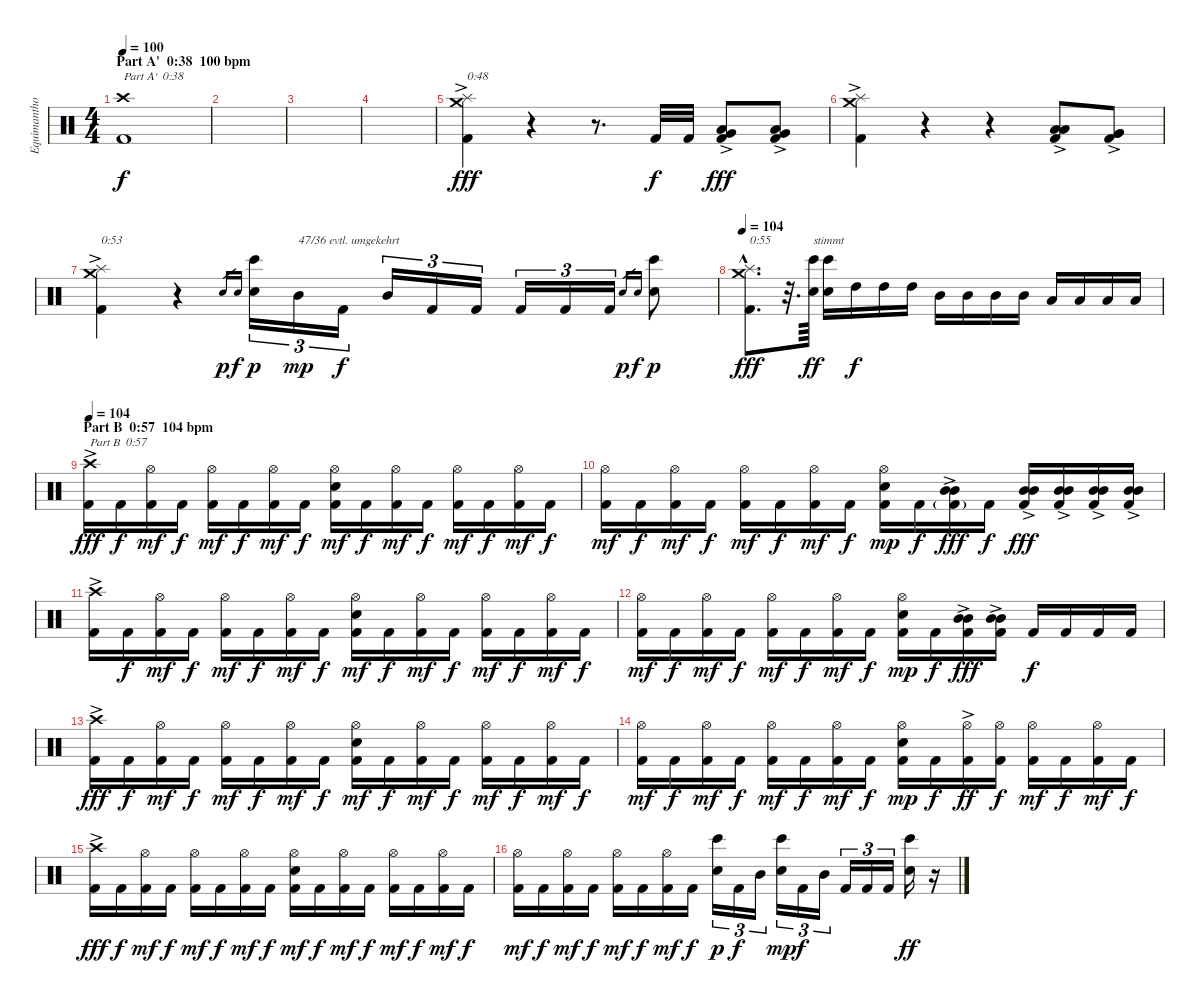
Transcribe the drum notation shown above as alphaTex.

\track ("Equimanthorn" "Equimantho") {instrument percussion}
\staff {score}
\articulation defaults
\ts (4 4)
\section ("" "Part A'  0:38  100 bpm")
\tempo 100
\clef neutral
\ks c
("Kick (hit) 2" "Crash high (hit)").1{txt "Part A'  0:38" dy f} |
|
|
|
("Kick (hit) 2" "Splash (hit)"{ac} "Crash medium (hit)"{ac}).4{txt "0:48" dy fff} r.4 r.8{d} "Kick (hit) 2".32{dy f} "Kick (hit) 2".32 ("Kick (hit) 2" "Low Tom (hit)"{ac} "Very Low Tom (hit)"{ac}).8{dy fff} ("Kick (hit) 2" "Low Tom (hit)"{ac} "Very Low Tom (hit)"{ac}).8 |
("Kick (hit) 2" "Splash (hit)"{ac} "Crash medium (hit)"{ac}).4 r.4 r.4 ("Kick (hit) 2" "Low Tom (hit)"{ac} "Low Tom (hit)"{ac}).8 ("Kick (hit) 2" "Very Low Tom (hit)"{ac} "Very Low Tom (hit)"{ac}).8 |
("Kick (hit) 2" "Splash (hit)"{ac} "Crash medium (hit)"{ac}).4{txt "0:53"} r.4 "Snare (hit)".16{gr dy p} "Electric Snare (hit)".16{gr dy f} ("Bongo High (hit)" "Electric Snare (hit)").16{tu (3 2) dy p} "Mid Tom (hit)".16{tu (3 2) txt "47/36 evtl. umgekehrt" dy mp} "Kick (hit) 2".16{tu (3 2) dy f} "Mid Tom (hit)".16{tu (3 2)} "Kick (hit) 2".16{tu (3 2)} "Kick (hit) 2".16{tu (3 2)} "Kick (hit) 2".16{tu (3 2)} "Kick (hit) 2".16{tu (3 2)} "Kick (hit) 2".16{tu (3 2)} "Snare (hit)".16{gr dy p} "Electric Snare (hit)".16{gr dy f} ("Bongo High (hit)" "Electric Snare (hit)").8{dy p} |
\tempo 104
("Kick (hit) 2"{hac} "Splash (hit)"{hac} "Crash medium (hit)"{hac}).8{d txt "0:55" dy fff} r.32{d} ("Bongo High (hit)" "Electric Snare (hit)").64{txt "stimmt" dy ff} ("Bongo High (hit)" "Electric Snare (hit)").16 "High Tom (hit)".16{dy f} "High Tom (hit)".16 "High Tom (hit)".16 "Mid Tom (hit)".16 "Mid Tom (hit)".16 "Mid Tom (hit)".16 "Mid Tom (hit)".16 "Low Tom (hit)".16 "Low Tom (hit)".16 "Low Tom (hit)".16 "Low Tom (hit)".16 |
\section ("" "Part B  0:57  104 bpm")
\tempo 104
("Kick (hit) 2" "Crash high (hit)"{ac}).16{txt "Part B  0:57" dy fff} "Kick (hit) 2".16{dy f} ("Kick (hit) 2" "Hi-Hat (open)").16{dy mf} "Kick (hit) 2".16{dy f} ("Kick (hit) 2" "Hi-Hat (open)").16{dy mf} "Kick (hit) 2".16{dy f} ("Kick (hit) 2" "Hi-Hat (open)").16{dy mf} "Kick (hit) 2".16{dy f} ("Kick (hit) 2" "Electric Snare (hit)" "Hi-Hat (open)").16{dy mf} "Kick (hit) 2".16{dy f} ("Kick (hit) 2" "Hi-Hat (open)").16{dy mf} "Kick (hit) 2".16{dy f} ("Kick (hit) 2" "Hi-Hat (open)").16{dy mf} "Kick (hit) 2".16{dy f} ("Kick (hit) 2" "Hi-Hat (open)").16{dy mf} "Kick (hit) 2".16{dy f} |
("Kick (hit) 2" "Hi-Hat (open)").16{dy mf} "Kick (hit) 2".16{dy f} ("Kick (hit) 2" "Hi-Hat (open)").16{dy mf} "Kick (hit) 2".16{dy f} ("Kick (hit) 2" "Hi-Hat (open)").16{dy mf} "Kick (hit) 2".16{dy f} ("Kick (hit) 2" "Hi-Hat (open)").16{dy mf} "Kick (hit) 2".16{dy f} ("Kick (hit) 2" "Electric Snare (hit)" "Hi-Hat (open)").16{dy mp} "Kick (hit) 2".16{dy f} ("Kick (hit) 2"{g} "Mid Tom (hit)"{ac} "Mid Tom (hit)"{ac}).16{dy fff} "Kick (hit) 2".16{dy f} ("Kick (hit) 2" "Mid Tom (hit)"{ac} "Mid Tom (hit)"{ac}).16{dy fff} ("Kick (hit) 2" "Mid Tom (hit)"{ac} "Mid Tom (hit)"{ac}).16 ("Kick (hit) 2" "Mid Tom (hit)"{ac} "Mid Tom (hit)"{ac}).16 ("Kick (hit) 2" "Mid Tom (hit)"{ac} "Mid Tom (hit)"{ac}).16 |
("Kick (hit) 2" "Crash high (hit)"{ac}).16 "Kick (hit) 2".16{dy f} ("Kick (hit) 2" "Hi-Hat (open)").16{dy mf} "Kick (hit) 2".16{dy f} ("Kick (hit) 2" "Hi-Hat (open)").16{dy mf} "Kick (hit) 2".16{dy f} ("Kick (hit) 2" "Hi-Hat (open)").16{dy mf} "Kick (hit) 2".16{dy f} ("Kick (hit) 2" "Electric Snare (hit)" "Hi-Hat (open)").16{dy mf} "Kick (hit) 2".16{dy f} ("Kick (hit) 2" "Hi-Hat (open)").16{dy mf} "Kick (hit) 2".16{dy f} ("Kick (hit) 2" "Hi-Hat (open)").16{dy mf} "Kick (hit) 2".16{dy f} ("Kick (hit) 2" "Hi-Hat (open)").16{dy mf} "Kick (hit) 2".16{dy f} |
("Kick (hit) 2" "Hi-Hat (open)").16{dy mf} "Kick (hit) 2".16{dy f} ("Kick (hit) 2" "Hi-Hat (open)").16{dy mf} "Kick (hit) 2".16{dy f} ("Kick (hit) 2" "Hi-Hat (open)").16{dy mf} "Kick (hit) 2".16{dy f} ("Kick (hit) 2" "Hi-Hat (open)").16{dy mf} "Kick (hit) 2".16{dy f} ("Kick (hit) 2" "Electric Snare (hit)" "Hi-Hat (open)").16{dy mp} "Kick (hit) 2".16{dy f} ("Kick (hit) 2" "Mid Tom (hit)"{ac} "Mid Tom (hit)"{ac}).16{dy fff} ("Kick (hit) 2" "Mid Tom (hit)"{ac} "Mid Tom (hit)"{ac}).16 "Kick (hit) 2".16{dy f} "Kick (hit) 2".16 "Kick (hit) 2".16 "Kick (hit) 2".16 |
("Kick (hit) 2" "Crash high (hit)"{ac}).16{dy fff} "Kick (hit) 2".16{dy f} ("Kick (hit) 2" "Hi-Hat (open)").16{dy mf} "Kick (hit) 2".16{dy f} ("Kick (hit) 2" "Hi-Hat (open)").16{dy mf} "Kick (hit) 2".16{dy f} ("Kick (hit) 2" "Hi-Hat (open)").16{dy mf} "Kick (hit) 2".16{dy f} ("Kick (hit) 2" "Electric Snare (hit)" "Hi-Hat (open)").16{dy mf} "Kick (hit) 2".16{dy f} ("Kick (hit) 2" "Hi-Hat (open)").16{dy mf} "Kick (hit) 2".16{dy f} ("Kick (hit) 2" "Hi-Hat (open)").16{dy mf} "Kick (hit) 2".16{dy f} ("Kick (hit) 2" "Hi-Hat (open)").16{dy mf} "Kick (hit) 2".16{dy f} |
("Kick (hit) 2" "Hi-Hat (open)").16{dy mf} "Kick (hit) 2".16{dy f} ("Kick (hit) 2" "Hi-Hat (open)").16{dy mf} "Kick (hit) 2".16{dy f} ("Kick (hit) 2" "Hi-Hat (open)").16{dy mf} "Kick (hit) 2".16{dy f} ("Kick (hit) 2" "Hi-Hat (open)").16{dy mf} "Kick (hit) 2".16{dy f} ("Kick (hit) 2" "Electric Snare (hit)" "Hi-Hat (open)").16{dy mp} "Kick (hit) 2".16{dy f} ("Kick (hit) 2" "Hi-Hat (open)"{ac}).16{dy ff} ("Kick (hit) 2" "Hi-Hat (open)").16{dy f} ("Kick (hit) 2" "Hi-Hat (open)").16{dy mf} "Kick (hit) 2".16{dy f} ("Kick (hit) 2" "Hi-Hat (open)").16{dy mf} "Kick (hit) 2".16{dy f} |
("Kick (hit) 2" "Crash high (hit)"{ac}).16{dy fff} "Kick (hit) 2".16{dy f} ("Kick (hit) 2" "Hi-Hat (open)").16{dy mf} "Kick (hit) 2".16{dy f} ("Kick (hit) 2" "Hi-Hat (open)").16{dy mf} "Kick (hit) 2".16{dy f} ("Kick (hit) 2" "Hi-Hat (open)").16{dy mf} "Kick (hit) 2".16{dy f} ("Kick (hit) 2" "Electric Snare (hit)" "Hi-Hat (open)").16{dy mf} "Kick (hit) 2".16{dy f} ("Kick (hit) 2" "Hi-Hat (open)").16{dy mf} "Kick (hit) 2".16{dy f} ("Kick (hit) 2" "Hi-Hat (open)").16{dy mf} "Kick (hit) 2".16{dy f} ("Kick (hit) 2" "Hi-Hat (open)").16{dy mf} "Kick (hit) 2".16{dy f} |
("Kick (hit) 2" "Hi-Hat (open)").16{dy mf} "Kick (hit) 2".16{dy f} ("Kick (hit) 2" "Hi-Hat (open)").16{dy mf} "Kick (hit) 2".16{dy f} ("Kick (hit) 2" "Hi-Hat (open)").16{dy mf} "Kick (hit) 2".16{dy f} ("Kick (hit) 2" "Hi-Hat (open)").16{dy mf} "Kick (hit) 2".16{dy f} ("Bongo High (hit)" "Electric Snare (hit)").16{tu (3 2) dy p} "Kick (hit) 2".16{tu (3 2) dy f} "Mid Tom (hit)".16{tu (3 2)} ("Bongo High (hit)" "Electric Snare (hit)").16{tu (3 2) dy mp} "Kick (hit) 2".16{tu (3 2) dy f} "Mid Tom (hit)".16{tu (3 2)} "Kick (hit) 2".16{tu (3 2)} "Kick (hit) 2".16{tu (3 2)} "Kick (hit) 2".16{tu (3 2)} ("Bongo High (hit)" "Electric Snare (hit)").16{dy ff} r.16
